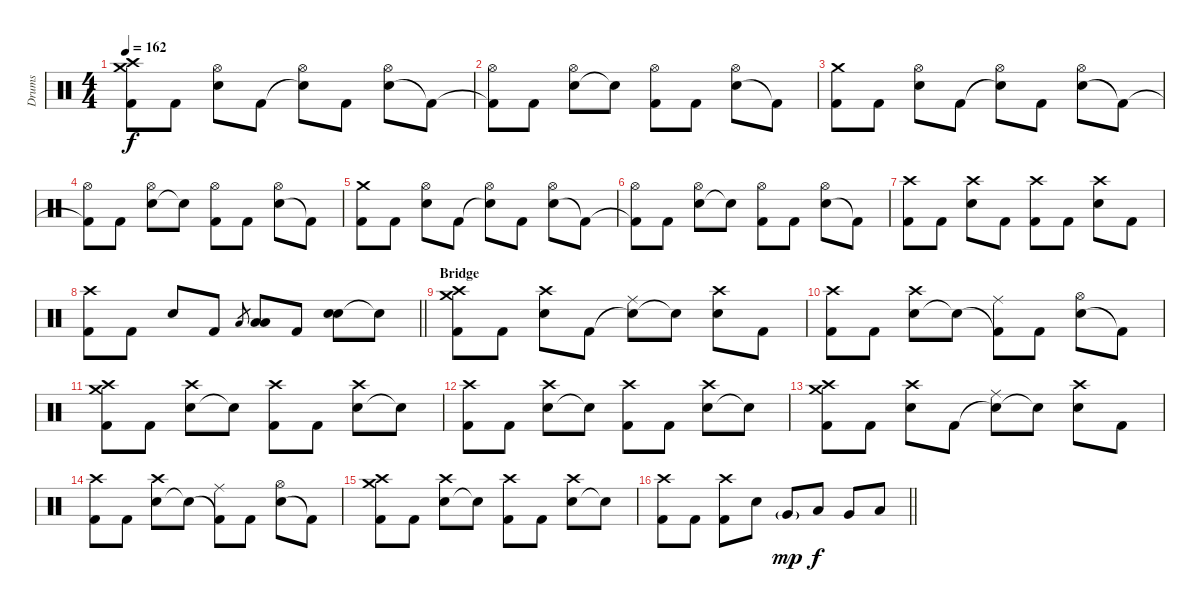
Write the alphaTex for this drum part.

\track ("Drums" "Drums") {instrument percussion}
\staff {score}
\articulation defaults
\ts (4 4)
\tempo 162
\clef neutral
\ks c
("Kick (hit) 2" "Crash medium (hit)" "Crash high (hit)").8{dy f} "Kick (hit) 2".8 ("Electric Snare (hit)" "Hi-Hat (open)").8 "Kick (hit) 2".8 ("Snare (hit)"{t} "Hi-Hat (open)").8 "Kick (hit) 2".8 ("Electric Snare (hit)" "Hi-Hat (open)").8 "Kick (hit) 2"{t}.8 |
("Kick (hit) 2"{t} "Hi-Hat (open)").8 "Kick (hit) 2".8 ("Electric Snare (hit)" "Hi-Hat (open)").8 "Snare (hit)"{t}.8 ("Kick (hit) 2" "Hi-Hat (open)").8 "Kick (hit) 2".8 ("Electric Snare (hit)" "Hi-Hat (open)").8 "Kick (hit) 2"{t}.8 |
("Kick (hit) 2" "Crash medium (hit)").8 "Kick (hit) 2".8 ("Electric Snare (hit)" "Hi-Hat (open)").8 "Kick (hit) 2".8 ("Snare (hit)"{t} "Hi-Hat (open)").8 "Kick (hit) 2".8 ("Electric Snare (hit)" "Hi-Hat (open)").8 "Kick (hit) 2"{t}.8 |
("Kick (hit) 2"{t} "Hi-Hat (open)").8 "Kick (hit) 2".8 ("Electric Snare (hit)" "Hi-Hat (open)").8 "Snare (hit)"{t}.8 ("Kick (hit) 2" "Hi-Hat (open)").8 "Kick (hit) 2".8 ("Electric Snare (hit)" "Hi-Hat (open)").8 "Kick (hit) 2"{t}.8 |
("Kick (hit) 2" "Crash medium (hit)").8 "Kick (hit) 2".8 ("Electric Snare (hit)" "Hi-Hat (open)").8 "Kick (hit) 2".8 ("Snare (hit)"{t} "Hi-Hat (open)").8 "Kick (hit) 2".8 ("Electric Snare (hit)" "Hi-Hat (open)").8 "Kick (hit) 2"{t}.8 |
("Kick (hit) 2"{t} "Hi-Hat (open)").8 "Kick (hit) 2".8 ("Electric Snare (hit)" "Hi-Hat (open)").8 "Snare (hit)"{t}.8 ("Kick (hit) 2" "Hi-Hat (open)").8 "Kick (hit) 2".8 ("Electric Snare (hit)" "Hi-Hat (open)").8 "Kick (hit) 2"{t}.8 |
("Kick (hit) 2" "Crash high (hit)").8 "Kick (hit) 2".8 ("Electric Snare (hit)" "Crash high (hit)").8 "Kick (hit) 2".8 ("Kick (hit) 2" "Crash high (hit)").8 "Kick (hit) 2".8 ("Electric Snare (hit)" "Crash high (hit)").8 "Kick (hit) 2".8 |
\barLineRight lightlight
("Kick (hit) 2" "Crash high (hit)").8 "Kick (hit) 2".8 "Electric Snare (hit)".8 "Kick (hit) 2".8 "Low Tom (hit)".8{gr} ("Low Tom (hit)" "Low Floor Tom (hit)").8 "Kick (hit) 2".8 ("Electric Snare (hit)" "Electric Snare (hit)").8 "Snare (hit)"{t}.8 |
\section ("" "Bridge")
("Kick (hit) 2" "Crash medium (hit)" "Crash high (hit)").8 "Kick (hit) 2".8 ("Electric Snare (hit)" "Crash high (hit)").8 "Kick (hit) 2".8 ("Snare (hit)"{t} "Ride (middle)").8 "Electric Snare (hit)"{t}.8 ("Electric Snare (hit)" "Crash high (hit)").8 "Kick (hit) 2".8 |
("Kick (hit) 2" "Crash high (hit)").8 "Kick (hit) 2".8 ("Electric Snare (hit)" "Crash high (hit)").8 "Snare (hit)"{t}.8 ("Kick (hit) 2"{t} "Ride (middle)").8 "Kick (hit) 2".8 ("Electric Snare (hit)" "Hi-Hat (open)").8 "Kick (hit) 2"{t}.8 |
("Kick (hit) 2" "Crash medium (hit)" "Crash high (hit)").8 "Kick (hit) 2".8 ("Electric Snare (hit)" "Crash high (hit)").8 "Snare (hit)"{t}.8 ("Kick (hit) 2" "Crash high (hit)").8 "Kick (hit) 2".8 ("Electric Snare (hit)" "Crash high (hit)").8 "Snare (hit)"{t}.8 |
("Kick (hit) 2" "Crash high (hit)").8 "Kick (hit) 2".8 ("Electric Snare (hit)" "Crash high (hit)").8 "Snare (hit)"{t}.8 ("Kick (hit) 2" "Crash high (hit)").8 "Kick (hit) 2".8 ("Electric Snare (hit)" "Crash high (hit)").8 "Snare (hit)"{t}.8 |
("Kick (hit) 2" "Crash medium (hit)" "Crash high (hit)").8 "Kick (hit) 2".8 ("Electric Snare (hit)" "Crash high (hit)").8 "Kick (hit) 2".8 ("Snare (hit)"{t} "Ride (middle)").8 "Electric Snare (hit)"{t}.8 ("Electric Snare (hit)" "Crash high (hit)").8 "Kick (hit) 2".8 |
("Kick (hit) 2" "Crash high (hit)").8 "Kick (hit) 2".8 ("Electric Snare (hit)" "Crash high (hit)").8 "Snare (hit)"{t}.8 ("Kick (hit) 2"{t} "Ride (middle)").8 "Kick (hit) 2".8 ("Electric Snare (hit)" "Hi-Hat (open)").8 "Kick (hit) 2"{t}.8 |
("Kick (hit) 2" "Crash medium (hit)" "Crash high (hit)").8 "Kick (hit) 2".8 ("Electric Snare (hit)" "Crash high (hit)").8 "Snare (hit)"{t}.8 ("Kick (hit) 2" "Crash high (hit)").8 "Kick (hit) 2".8 ("Electric Snare (hit)" "Crash high (hit)").8 "Snare (hit)"{t}.8 |
\barLineRight lightlight
("Kick (hit) 2" "Crash high (hit)").8 "Kick (hit) 2".8 ("Kick (hit) 2" "Crash high (hit)").8 "Electric Snare (hit)".8 "Very Low Tom (hit)"{g}.8{dy mp} "Low Tom (hit)".8{dy f} "Very Low Tom (hit)".8 "Low Floor Tom (hit)".8
